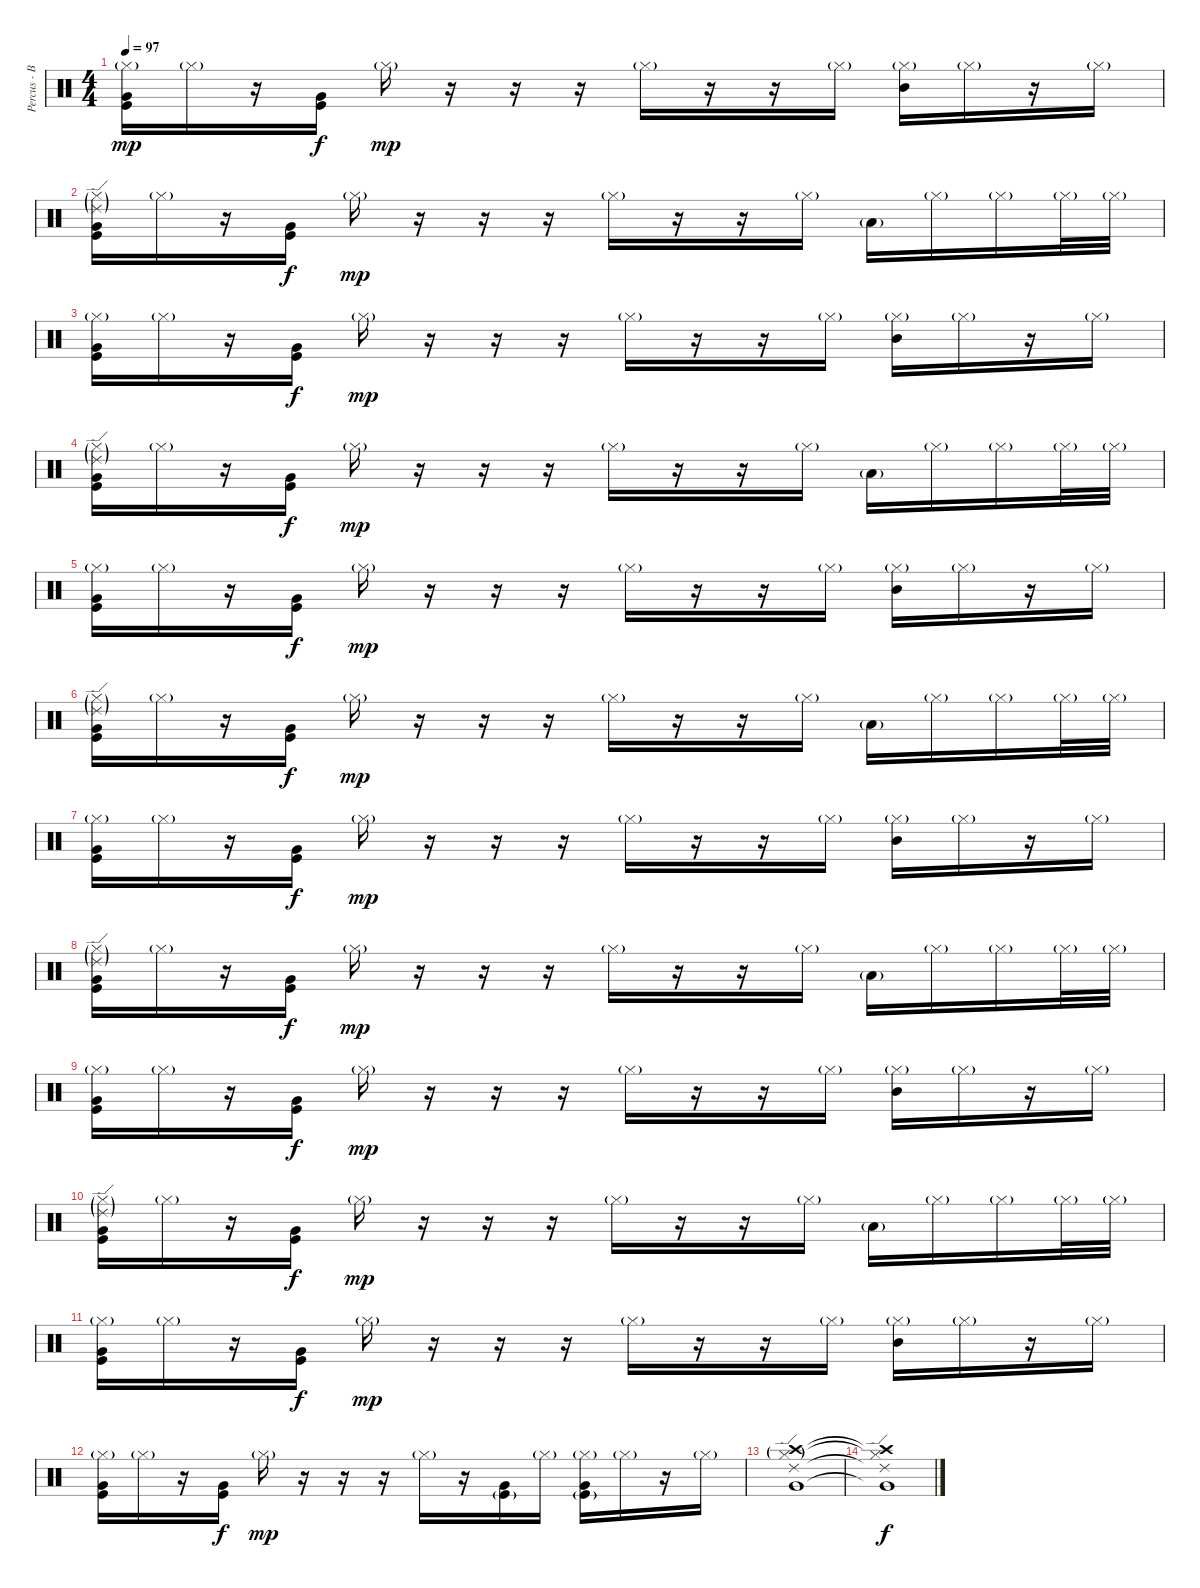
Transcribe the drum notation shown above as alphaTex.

\track ("Percus - Ben" "Percus - B") {instrument percussion}
\staff {score}
\articulation defaults
\ts (4 4)
\tempo 97
\clef neutral
\ks c
("Hi-Hat (closed)"{g} "Very Low Tom (hit)" "Kick (hit)").16{dy mp} "Hi-Hat (closed)"{g}.16 r.16 ("Very Low Tom (hit)" "Kick (hit)").16{dy f} "Hi-Hat (closed)"{g}.16{dy mp} r.16 r.16 r.16 "Hi-Hat (closed)"{g}.16 r.16 r.16 "Hi-Hat (closed)"{g}.16 ("Hi-Hat (closed)"{g} "Mid Tom (hit)").16 "Hi-Hat (closed)"{g}.16 r.16 "Hi-Hat (closed)"{g}.16 |
("Ride (edge) 2"{g} "Hi-Hat (closed)"{g} "Very Low Tom (hit)" "Kick (hit)").16 "Hi-Hat (closed)"{g}.16 r.16 ("Very Low Tom (hit)" "Kick (hit)").16{dy f} "Hi-Hat (closed)"{g}.16{dy mp} r.16 r.16 r.16 "Hi-Hat (closed)"{g}.16 r.16 r.16 "Hi-Hat (closed)"{g}.16 "Low Tom (hit)"{g}.16 "Hi-Hat (closed)"{g}.16 "Hi-Hat (closed)"{g}.16 "Hi-Hat (closed)"{g}.32 "Hi-Hat (closed)"{g}.32 |
("Hi-Hat (closed)"{g} "Very Low Tom (hit)" "Kick (hit)").16 "Hi-Hat (closed)"{g}.16 r.16 ("Very Low Tom (hit)" "Kick (hit)").16{dy f} "Hi-Hat (closed)"{g}.16{dy mp} r.16 r.16 r.16 "Hi-Hat (closed)"{g}.16 r.16 r.16 "Hi-Hat (closed)"{g}.16 ("Hi-Hat (closed)"{g} "Mid Tom (hit)").16 "Hi-Hat (closed)"{g}.16 r.16 "Hi-Hat (closed)"{g}.16 |
("Ride (edge) 2"{g} "Hi-Hat (closed)"{g} "Very Low Tom (hit)" "Kick (hit)").16 "Hi-Hat (closed)"{g}.16 r.16 ("Very Low Tom (hit)" "Kick (hit)").16{dy f} "Hi-Hat (closed)"{g}.16{dy mp} r.16 r.16 r.16 "Hi-Hat (closed)"{g}.16 r.16 r.16 "Hi-Hat (closed)"{g}.16 "Low Tom (hit)"{g}.16 "Hi-Hat (closed)"{g}.16 "Hi-Hat (closed)"{g}.16 "Hi-Hat (closed)"{g}.32 "Hi-Hat (closed)"{g}.32 |
("Hi-Hat (closed)"{g} "Very Low Tom (hit)" "Kick (hit)").16 "Hi-Hat (closed)"{g}.16 r.16 ("Very Low Tom (hit)" "Kick (hit)").16{dy f} "Hi-Hat (closed)"{g}.16{dy mp} r.16 r.16 r.16 "Hi-Hat (closed)"{g}.16 r.16 r.16 "Hi-Hat (closed)"{g}.16 ("Hi-Hat (closed)"{g} "Mid Tom (hit)").16 "Hi-Hat (closed)"{g}.16 r.16 "Hi-Hat (closed)"{g}.16 |
("Ride (edge) 2"{g} "Hi-Hat (closed)"{g} "Very Low Tom (hit)" "Kick (hit)").16 "Hi-Hat (closed)"{g}.16 r.16 ("Very Low Tom (hit)" "Kick (hit)").16{dy f} "Hi-Hat (closed)"{g}.16{dy mp} r.16 r.16 r.16 "Hi-Hat (closed)"{g}.16 r.16 r.16 "Hi-Hat (closed)"{g}.16 "Low Tom (hit)"{g}.16 "Hi-Hat (closed)"{g}.16 "Hi-Hat (closed)"{g}.16 "Hi-Hat (closed)"{g}.32 "Hi-Hat (closed)"{g}.32 |
("Hi-Hat (closed)"{g} "Very Low Tom (hit)" "Kick (hit)").16 "Hi-Hat (closed)"{g}.16 r.16 ("Very Low Tom (hit)" "Kick (hit)").16{dy f} "Hi-Hat (closed)"{g}.16{dy mp} r.16 r.16 r.16 "Hi-Hat (closed)"{g}.16 r.16 r.16 "Hi-Hat (closed)"{g}.16 ("Hi-Hat (closed)"{g} "Mid Tom (hit)").16 "Hi-Hat (closed)"{g}.16 r.16 "Hi-Hat (closed)"{g}.16 |
("Ride (edge) 2"{g} "Hi-Hat (closed)"{g} "Very Low Tom (hit)" "Kick (hit)").16 "Hi-Hat (closed)"{g}.16 r.16 ("Very Low Tom (hit)" "Kick (hit)").16{dy f} "Hi-Hat (closed)"{g}.16{dy mp} r.16 r.16 r.16 "Hi-Hat (closed)"{g}.16 r.16 r.16 "Hi-Hat (closed)"{g}.16 "Low Tom (hit)"{g}.16 "Hi-Hat (closed)"{g}.16 "Hi-Hat (closed)"{g}.16 "Hi-Hat (closed)"{g}.32 "Hi-Hat (closed)"{g}.32 |
("Hi-Hat (closed)"{g} "Very Low Tom (hit)" "Kick (hit)").16 "Hi-Hat (closed)"{g}.16 r.16 ("Very Low Tom (hit)" "Kick (hit)").16{dy f} "Hi-Hat (closed)"{g}.16{dy mp} r.16 r.16 r.16 "Hi-Hat (closed)"{g}.16 r.16 r.16 "Hi-Hat (closed)"{g}.16 ("Hi-Hat (closed)"{g} "Mid Tom (hit)").16 "Hi-Hat (closed)"{g}.16 r.16 "Hi-Hat (closed)"{g}.16 |
("Ride (edge) 2"{g} "Hi-Hat (closed)"{g} "Very Low Tom (hit)" "Kick (hit)").16 "Hi-Hat (closed)"{g}.16 r.16 ("Very Low Tom (hit)" "Kick (hit)").16{dy f} "Hi-Hat (closed)"{g}.16{dy mp} r.16 r.16 r.16 "Hi-Hat (closed)"{g}.16 r.16 r.16 "Hi-Hat (closed)"{g}.16 "Low Tom (hit)"{g}.16 "Hi-Hat (closed)"{g}.16 "Hi-Hat (closed)"{g}.16 "Hi-Hat (closed)"{g}.32 "Hi-Hat (closed)"{g}.32 |
("Hi-Hat (closed)"{g} "Very Low Tom (hit)" "Kick (hit)").16 "Hi-Hat (closed)"{g}.16 r.16 ("Very Low Tom (hit)" "Kick (hit)").16{dy f} "Hi-Hat (closed)"{g}.16{dy mp} r.16 r.16 r.16 "Hi-Hat (closed)"{g}.16 r.16 r.16 "Hi-Hat (closed)"{g}.16 ("Hi-Hat (closed)"{g} "Mid Tom (hit)").16 "Hi-Hat (closed)"{g}.16 r.16 "Hi-Hat (closed)"{g}.16 |
("Hi-Hat (closed)"{g} "Very Low Tom (hit)" "Kick (hit)").16 "Hi-Hat (closed)"{g}.16 r.16 ("Very Low Tom (hit)" "Kick (hit)").16{dy f} "Hi-Hat (closed)"{g}.16{dy mp} r.16 r.16 r.16 "Hi-Hat (closed)"{g}.16 r.16 ("Very Low Tom (hit)" "Kick (hit)"{g}).16 "Hi-Hat (closed)"{g}.16 ("Hi-Hat (closed)"{g} "Very Low Tom (hit)" "Kick (hit)"{g}).16 "Hi-Hat (closed)"{g}.16 r.16 "Hi-Hat (closed)"{g}.16 |
("Crash high (hit)"{g} "Ride (edge) 2" "Hi-Hat (closed)"{g} "Very Low Tom (hit)").1 |
("Crash high (hit)"{t} "Ride (edge) 2"{t} "Hi-Hat (closed)"{t} "Very Low Tom (hit)"{t}).1{dy f}
